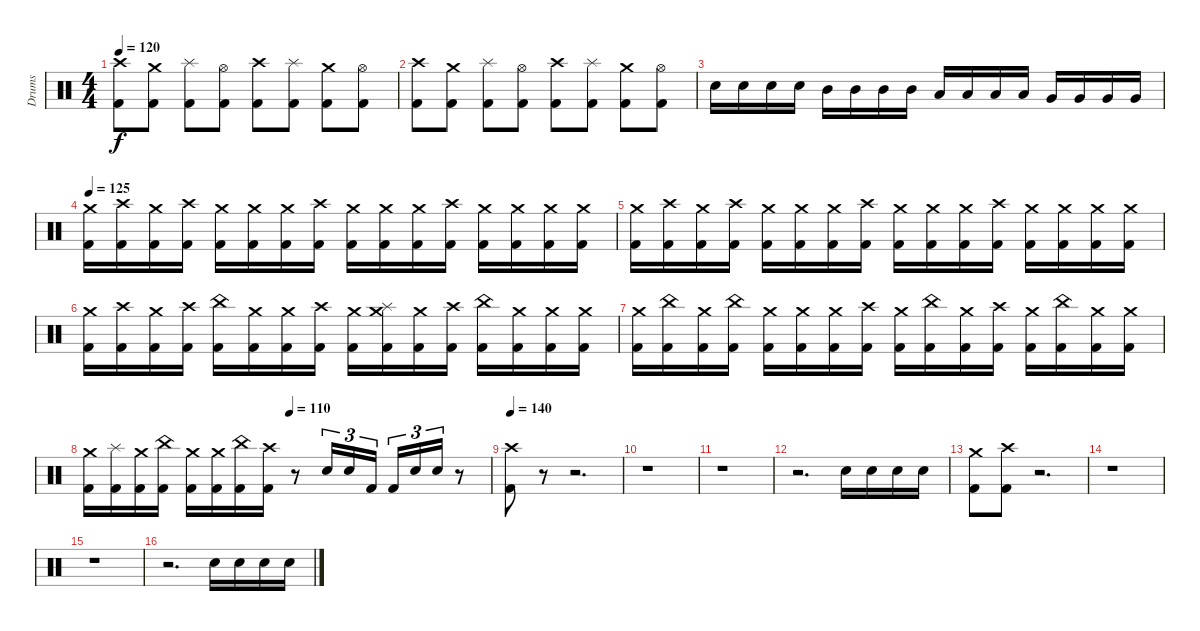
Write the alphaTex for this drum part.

\track ("Drums" "Drums") {instrument percussion}
\staff {score}
\articulation defaults
\ts (4 4)
\tempo 120
\clef neutral
\ks c
("Crash high (hit)" "Kick (hit) 2").8{dy f} ("Crash medium (hit)" "Kick (hit) 2").8 ("Splash (hit)" "Kick (hit) 2").8 ("Hi-Hat (open)" "Kick (hit) 2").8 ("Crash high (hit)" "Kick (hit) 2").8 ("Splash (hit)" "Kick (hit) 2").8 ("Crash medium (hit)" "Kick (hit) 2").8 ("Hi-Hat (open)" "Kick (hit) 2").8 |
("Crash high (hit)" "Kick (hit) 2").8 ("Crash medium (hit)" "Kick (hit) 2").8 ("Splash (hit)" "Kick (hit) 2").8 ("Hi-Hat (open)" "Kick (hit) 2").8 ("Crash high (hit)" "Kick (hit) 2").8 ("Splash (hit)" "Kick (hit) 2").8 ("Crash medium (hit)" "Kick (hit) 2").8 ("Hi-Hat (open)" "Kick (hit) 2").8 |
"Snare (hit) 2".16 "Snare (hit) 2".16 "Snare (hit) 2".16 "Snare (hit) 2".16 "Mid Tom (hit)".16 "Mid Tom (hit)".16 "Mid Tom (hit)".16 "Mid Tom (hit)".16 "Low Tom (hit)".16 "Low Tom (hit)".16 "Low Tom (hit)".16 "Low Tom (hit)".16 "Very Low Tom (hit)".16 "Very Low Tom (hit)".16 "Very Low Tom (hit)".16 "Very Low Tom (hit)".16 |
\tempo 125
("Crash medium (hit)" "Kick (hit) 2").16 ("Crash high (hit)" "Kick (hit) 2").16 ("Crash medium (hit)" "Kick (hit) 2").16 ("Crash high (hit)" "Kick (hit) 2").16 ("Crash medium (hit)" "Kick (hit) 2").16 ("Crash medium (hit)" "Kick (hit) 2").16 ("Crash medium (hit)" "Kick (hit) 2").16 ("Crash high (hit)" "Kick (hit) 2").16 ("Crash medium (hit)" "Kick (hit) 2").16 ("Crash medium (hit)" "Kick (hit) 2").16 ("Crash medium (hit)" "Kick (hit) 2").16 ("Crash high (hit)" "Kick (hit) 2").16 ("Crash medium (hit)" "Kick (hit) 2").16 ("Crash medium (hit)" "Kick (hit) 2").16 ("Crash medium (hit)" "Kick (hit) 2").16 ("Crash medium (hit)" "Kick (hit) 2").16 |
("Crash medium (hit)" "Kick (hit) 2").16 ("Crash high (hit)" "Kick (hit) 2").16 ("Crash medium (hit)" "Kick (hit) 2").16 ("Crash high (hit)" "Kick (hit) 2").16 ("Crash medium (hit)" "Kick (hit) 2").16 ("Crash medium (hit)" "Kick (hit) 2").16 ("Crash medium (hit)" "Kick (hit) 2").16 ("Crash high (hit)" "Kick (hit) 2").16 ("Crash medium (hit)" "Kick (hit) 2").16 ("Crash medium (hit)" "Kick (hit) 2").16 ("Crash medium (hit)" "Kick (hit) 2").16 ("Crash high (hit)" "Kick (hit) 2").16 ("Crash medium (hit)" "Kick (hit) 2").16 ("Crash medium (hit)" "Kick (hit) 2").16 ("Crash medium (hit)" "Kick (hit) 2").16 ("Crash medium (hit)" "Kick (hit) 2").16 |
("Crash medium (hit)" "Kick (hit) 2").16 ("Crash high (hit)" "Kick (hit) 2").16 ("Crash medium (hit)" "Kick (hit) 2").16 ("Crash high (hit)" "Kick (hit) 2").16 ("China (hit)" "Kick (hit) 2").16 ("Crash medium (hit)" "Kick (hit) 2").16 ("Crash medium (hit)" "Kick (hit) 2").16 ("Crash high (hit)" "Kick (hit) 2").16 ("Crash medium (hit)" "Kick (hit) 2").16 ("Splash (hit)" "Crash medium (hit)" "Kick (hit) 2").16 ("Crash medium (hit)" "Kick (hit) 2").16 ("Crash high (hit)" "Kick (hit) 2").16 ("China (hit)" "Kick (hit) 2").16 ("Crash medium (hit)" "Kick (hit) 2").16 ("Crash medium (hit)" "Kick (hit) 2").16 ("Crash medium (hit)" "Kick (hit) 2").16 |
("Crash medium (hit)" "Kick (hit) 2").16 ("China (hit)" "Kick (hit) 2").16 ("Crash medium (hit)" "Kick (hit) 2").16 ("China (hit)" "Kick (hit) 2").16 ("Crash medium (hit)" "Kick (hit) 2").16 ("Crash medium (hit)" "Kick (hit) 2").16 ("Crash medium (hit)" "Kick (hit) 2").16 ("Crash high (hit)" "Kick (hit) 2").16 ("Crash medium (hit)" "Kick (hit) 2").16 ("China (hit)" "Kick (hit) 2").16 ("Crash medium (hit)" "Kick (hit) 2").16 ("Crash high (hit)" "Kick (hit) 2").16 ("Crash medium (hit)" "Kick (hit) 2").16 ("China (hit)" "Kick (hit) 2").16 ("Crash medium (hit)" "Kick (hit) 2").16 ("Crash medium (hit)" "Kick (hit) 2").16 |
\tempo (110 0.5)
("Crash medium (hit)" "Kick (hit) 2").16 ("Splash (hit)" "Kick (hit) 2").16 ("Crash medium (hit)" "Kick (hit) 2").16 ("China (hit)" "Kick (hit) 2").16 ("Crash medium (hit)" "Kick (hit) 2").16 ("Crash medium (hit)" "Kick (hit) 2").16 ("China (hit)" "Kick (hit) 2").16 ("Crash high (hit)" "Kick (hit) 2").16 r.8 "Snare (hit) 2".16{tu (3 2)} "Snare (hit) 2".16{tu (3 2)} "Kick (hit) 2".16{tu (3 2)} "Kick (hit) 2".16{tu (3 2)} "Snare (hit) 2".16{tu (3 2)} "Snare (hit) 2".16{tu (3 2)} r.8 |
\tempo 140
("Crash high (hit)" "Kick (hit) 2").8 r.8{volume 0} r.2{d} |
r.1 |
r.1 |
r.2{d} "Snare (hit) 2".16{volume 10} "Snare (hit) 2".16 "Snare (hit) 2".16 "Snare (hit) 2".16 |
("Crash medium (hit)" "Kick (hit) 2").8 ("Kick (hit) 2" "Crash high (hit)").8 r.2{d} |
r.1 |
r.1 |
r.2{d} "Snare (hit) 2".16 "Snare (hit) 2".16 "Snare (hit) 2".16 "Snare (hit) 2".16
